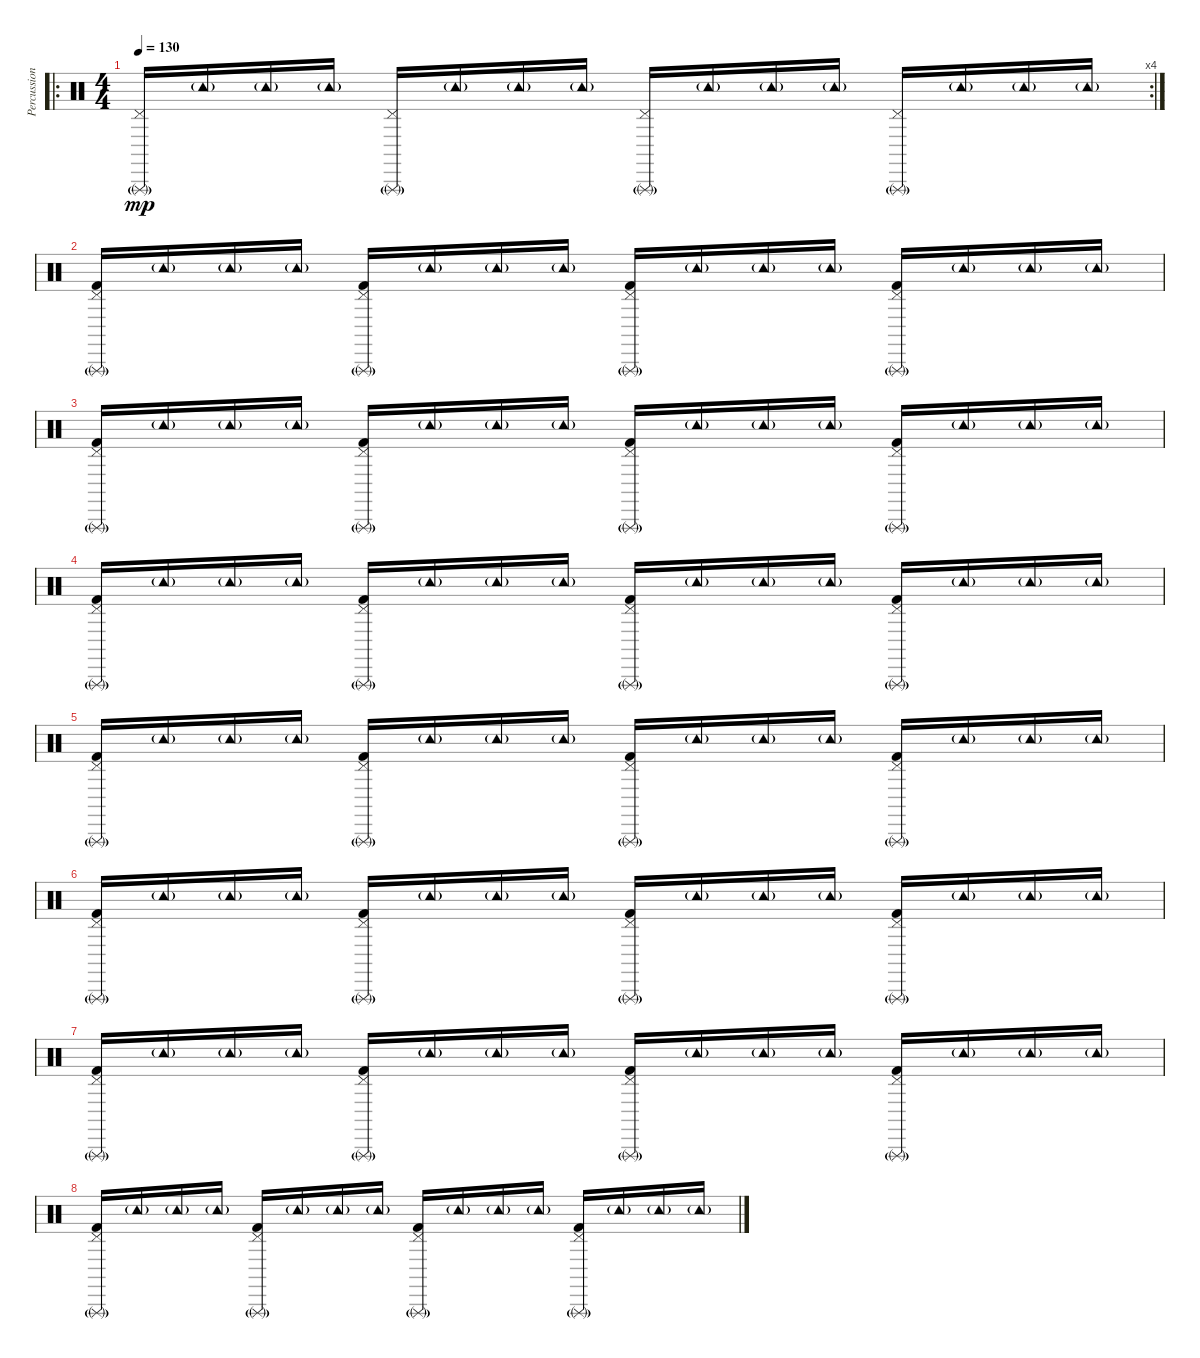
\track ("Percussion" "Percussion") {instrument percussion}
\staff {score}
\articulation defaults
\ro
\rc 4
\ts (4 4)
\tempo 130
\clef neutral
\ks c
("Triangle (rnute)"{g} "Pedal Hi-Hat (hit)").16{dy mp} "Tambourine (hit)"{g}.16 "Tambourine (hit)"{g}.16 "Tambourine (hit)"{g}.16 ("Triangle (rnute)"{g} "Pedal Hi-Hat (hit)").16 "Tambourine (hit)"{g}.16 "Tambourine (hit)"{g}.16 "Tambourine (hit)"{g}.16 ("Triangle (rnute)"{g} "Pedal Hi-Hat (hit)").16 "Tambourine (hit)"{g}.16 "Tambourine (hit)"{g}.16 "Tambourine (hit)"{g}.16 ("Triangle (rnute)"{g} "Pedal Hi-Hat (hit)").16 "Tambourine (hit)"{g}.16 "Tambourine (hit)"{g}.16 "Tambourine (hit)"{g}.16 |
("Triangle (rnute)"{g} "Pedal Hi-Hat (hit)" "Kick (hit) 2").16 "Tambourine (hit)"{g}.16 "Tambourine (hit)"{g}.16 "Tambourine (hit)"{g}.16 ("Triangle (rnute)"{g} "Pedal Hi-Hat (hit)" "Kick (hit) 2").16 "Tambourine (hit)"{g}.16 "Tambourine (hit)"{g}.16 "Tambourine (hit)"{g}.16 ("Triangle (rnute)"{g} "Pedal Hi-Hat (hit)" "Kick (hit) 2").16 "Tambourine (hit)"{g}.16 "Tambourine (hit)"{g}.16 "Tambourine (hit)"{g}.16 ("Triangle (rnute)"{g} "Pedal Hi-Hat (hit)" "Kick (hit) 2").16 "Tambourine (hit)"{g}.16 "Tambourine (hit)"{g}.16 "Tambourine (hit)"{g}.16 |
("Triangle (rnute)"{g} "Pedal Hi-Hat (hit)" "Kick (hit) 2").16 "Tambourine (hit)"{g}.16 "Tambourine (hit)"{g}.16 "Tambourine (hit)"{g}.16 ("Triangle (rnute)"{g} "Pedal Hi-Hat (hit)" "Kick (hit) 2").16 "Tambourine (hit)"{g}.16 "Tambourine (hit)"{g}.16 "Tambourine (hit)"{g}.16 ("Triangle (rnute)"{g} "Pedal Hi-Hat (hit)" "Kick (hit) 2").16 "Tambourine (hit)"{g}.16 "Tambourine (hit)"{g}.16 "Tambourine (hit)"{g}.16 ("Triangle (rnute)"{g} "Pedal Hi-Hat (hit)" "Kick (hit) 2").16 "Tambourine (hit)"{g}.16 "Tambourine (hit)"{g}.16 "Tambourine (hit)"{g}.16 |
("Triangle (rnute)"{g} "Pedal Hi-Hat (hit)" "Kick (hit) 2").16 "Tambourine (hit)"{g}.16 "Tambourine (hit)"{g}.16 "Tambourine (hit)"{g}.16 ("Triangle (rnute)"{g} "Pedal Hi-Hat (hit)" "Kick (hit) 2").16 "Tambourine (hit)"{g}.16 "Tambourine (hit)"{g}.16 "Tambourine (hit)"{g}.16 ("Triangle (rnute)"{g} "Pedal Hi-Hat (hit)" "Kick (hit) 2").16 "Tambourine (hit)"{g}.16 "Tambourine (hit)"{g}.16 "Tambourine (hit)"{g}.16 ("Triangle (rnute)"{g} "Pedal Hi-Hat (hit)" "Kick (hit) 2").16 "Tambourine (hit)"{g}.16 "Tambourine (hit)"{g}.16 "Tambourine (hit)"{g}.16 |
("Triangle (rnute)"{g} "Pedal Hi-Hat (hit)" "Kick (hit) 2").16 "Tambourine (hit)"{g}.16 "Tambourine (hit)"{g}.16 "Tambourine (hit)"{g}.16 ("Triangle (rnute)"{g} "Pedal Hi-Hat (hit)" "Kick (hit) 2").16 "Tambourine (hit)"{g}.16 "Tambourine (hit)"{g}.16 "Tambourine (hit)"{g}.16 ("Triangle (rnute)"{g} "Pedal Hi-Hat (hit)" "Kick (hit) 2").16 "Tambourine (hit)"{g}.16 "Tambourine (hit)"{g}.16 "Tambourine (hit)"{g}.16 ("Triangle (rnute)"{g} "Pedal Hi-Hat (hit)" "Kick (hit) 2").16 "Tambourine (hit)"{g}.16 "Tambourine (hit)"{g}.16 "Tambourine (hit)"{g}.16 |
("Triangle (rnute)"{g} "Pedal Hi-Hat (hit)" "Kick (hit) 2").16 "Tambourine (hit)"{g}.16 "Tambourine (hit)"{g}.16 "Tambourine (hit)"{g}.16 ("Triangle (rnute)"{g} "Pedal Hi-Hat (hit)" "Kick (hit) 2").16 "Tambourine (hit)"{g}.16 "Tambourine (hit)"{g}.16 "Tambourine (hit)"{g}.16 ("Triangle (rnute)"{g} "Pedal Hi-Hat (hit)" "Kick (hit) 2").16 "Tambourine (hit)"{g}.16 "Tambourine (hit)"{g}.16 "Tambourine (hit)"{g}.16 ("Triangle (rnute)"{g} "Pedal Hi-Hat (hit)" "Kick (hit) 2").16 "Tambourine (hit)"{g}.16 "Tambourine (hit)"{g}.16 "Tambourine (hit)"{g}.16 |
("Triangle (rnute)"{g} "Pedal Hi-Hat (hit)" "Kick (hit) 2").16 "Tambourine (hit)"{g}.16 "Tambourine (hit)"{g}.16 "Tambourine (hit)"{g}.16 ("Triangle (rnute)"{g} "Pedal Hi-Hat (hit)" "Kick (hit) 2").16 "Tambourine (hit)"{g}.16 "Tambourine (hit)"{g}.16 "Tambourine (hit)"{g}.16 ("Triangle (rnute)"{g} "Pedal Hi-Hat (hit)" "Kick (hit) 2").16 "Tambourine (hit)"{g}.16 "Tambourine (hit)"{g}.16 "Tambourine (hit)"{g}.16 ("Triangle (rnute)"{g} "Pedal Hi-Hat (hit)" "Kick (hit) 2").16 "Tambourine (hit)"{g}.16 "Tambourine (hit)"{g}.16 "Tambourine (hit)"{g}.16 |
("Triangle (rnute)"{g} "Pedal Hi-Hat (hit)" "Kick (hit) 2").16 "Tambourine (hit)"{g}.16 "Tambourine (hit)"{g}.16 "Tambourine (hit)"{g}.16 ("Triangle (rnute)"{g} "Pedal Hi-Hat (hit)" "Kick (hit) 2").16 "Tambourine (hit)"{g}.16 "Tambourine (hit)"{g}.16 "Tambourine (hit)"{g}.16 ("Triangle (rnute)"{g} "Pedal Hi-Hat (hit)" "Kick (hit) 2").16 "Tambourine (hit)"{g}.16 "Tambourine (hit)"{g}.16 "Tambourine (hit)"{g}.16 ("Triangle (rnute)"{g} "Pedal Hi-Hat (hit)" "Kick (hit) 2").16 "Tambourine (hit)"{g}.16 "Tambourine (hit)"{g}.16 "Tambourine (hit)"{g}.16
